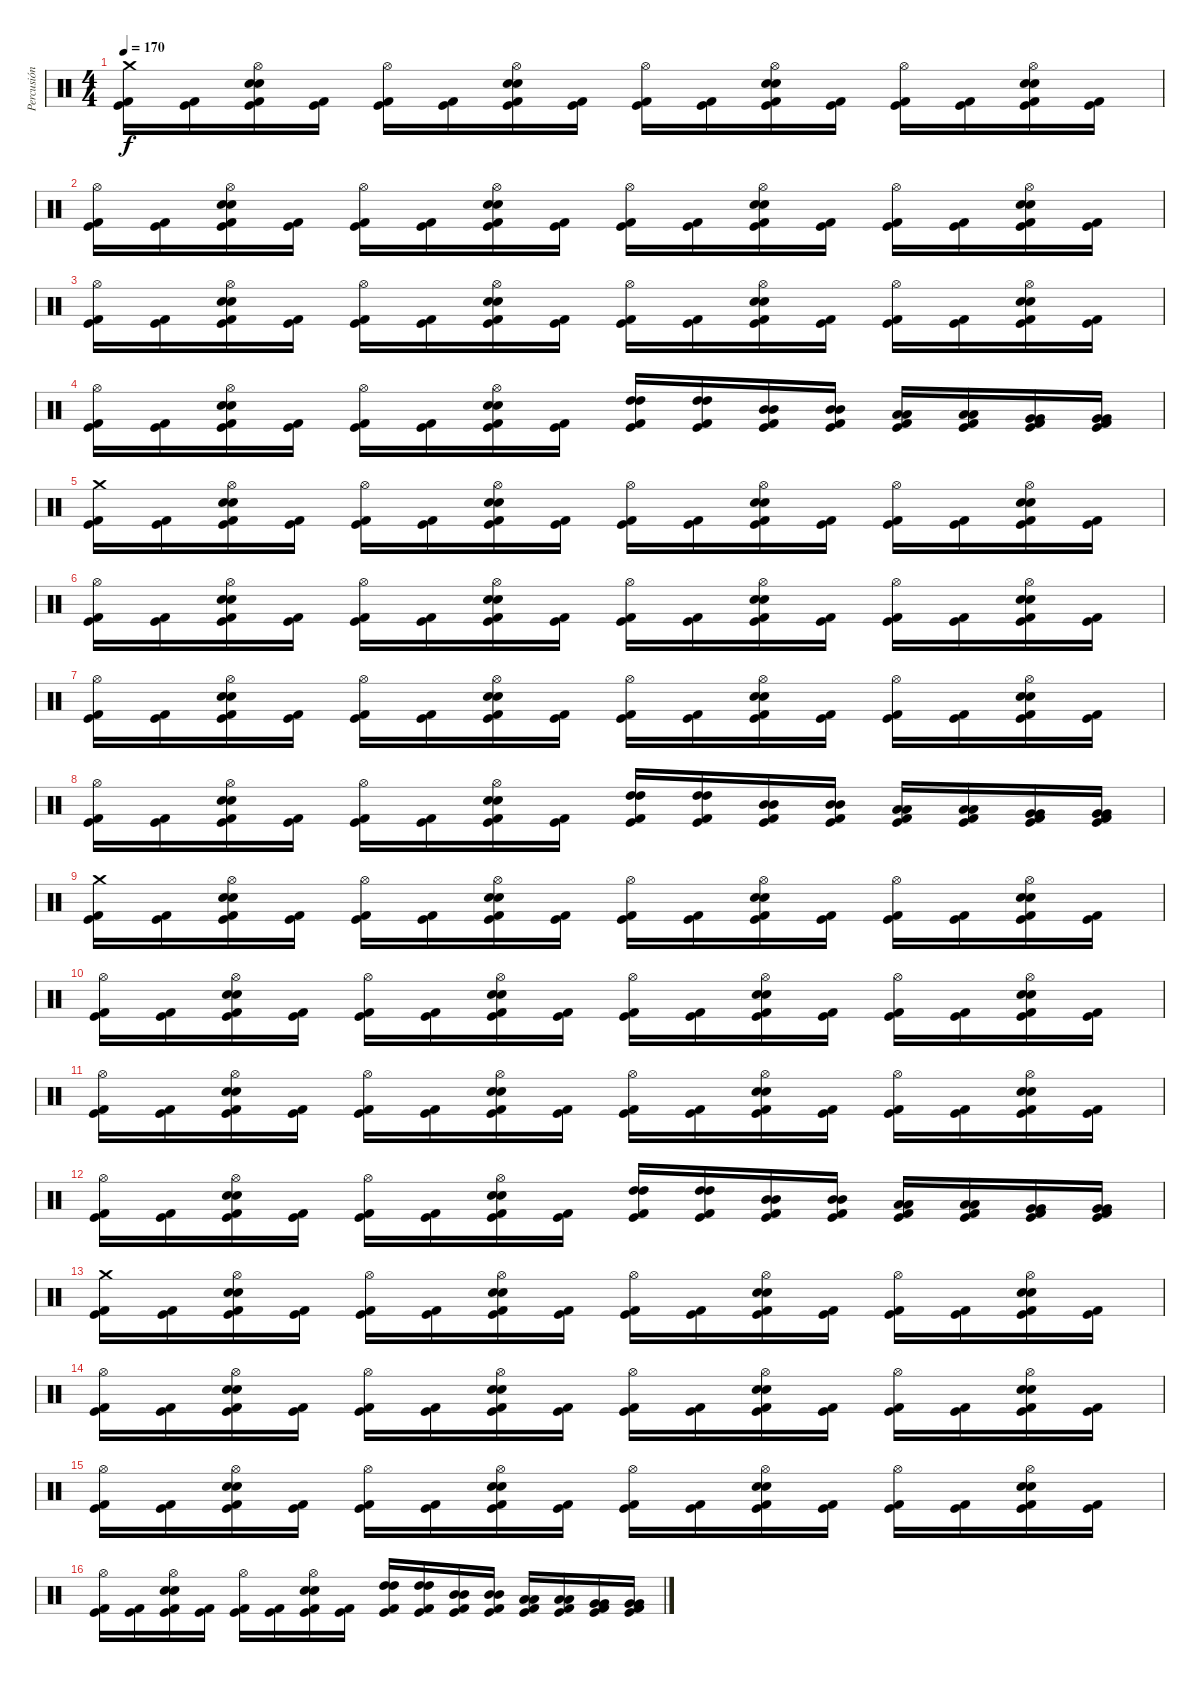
\track ("Percusión" "Percusión") {instrument percussion}
\staff {score}
\articulation defaults
\ts (4 4)
\tempo 170
\clef neutral
\ks c
("Crash medium (hit)" "Kick (hit) 2" "Kick (hit)").16{dy f} ("Kick (hit) 2" "Kick (hit)").16 ("Hi-Hat (open)" "Snare (hit) 2" "Snare (hit) 2" "Kick (hit) 2" "Kick (hit)").16 ("Kick (hit) 2" "Kick (hit)").16 ("Hi-Hat (open)" "Kick (hit) 2" "Kick (hit)").16 ("Kick (hit) 2" "Kick (hit)").16 ("Hi-Hat (open)" "Snare (hit) 2" "Snare (hit) 2" "Kick (hit) 2" "Kick (hit)").16 ("Kick (hit) 2" "Kick (hit)").16 ("Hi-Hat (open)" "Kick (hit) 2" "Kick (hit)").16 ("Kick (hit) 2" "Kick (hit)").16 ("Hi-Hat (open)" "Snare (hit) 2" "Snare (hit) 2" "Kick (hit) 2" "Kick (hit)").16 ("Kick (hit) 2" "Kick (hit)").16 ("Hi-Hat (open)" "Kick (hit) 2" "Kick (hit)").16 ("Kick (hit) 2" "Kick (hit)").16 ("Hi-Hat (open)" "Snare (hit) 2" "Snare (hit) 2" "Kick (hit) 2" "Kick (hit)").16 ("Kick (hit) 2" "Kick (hit)").16 |
("Hi-Hat (open)" "Kick (hit) 2" "Kick (hit)").16 ("Kick (hit) 2" "Kick (hit)").16 ("Hi-Hat (open)" "Snare (hit) 2" "Snare (hit) 2" "Kick (hit) 2" "Kick (hit)").16 ("Kick (hit) 2" "Kick (hit)").16 ("Hi-Hat (open)" "Kick (hit) 2" "Kick (hit)").16 ("Kick (hit) 2" "Kick (hit)").16 ("Hi-Hat (open)" "Snare (hit) 2" "Snare (hit) 2" "Kick (hit) 2" "Kick (hit)").16 ("Kick (hit) 2" "Kick (hit)").16 ("Hi-Hat (open)" "Kick (hit) 2" "Kick (hit)").16 ("Kick (hit) 2" "Kick (hit)").16 ("Hi-Hat (open)" "Snare (hit) 2" "Snare (hit) 2" "Kick (hit) 2" "Kick (hit)").16 ("Kick (hit) 2" "Kick (hit)").16 ("Hi-Hat (open)" "Kick (hit) 2" "Kick (hit)").16 ("Kick (hit) 2" "Kick (hit)").16 ("Hi-Hat (open)" "Snare (hit) 2" "Snare (hit) 2" "Kick (hit) 2" "Kick (hit)").16 ("Kick (hit) 2" "Kick (hit)").16 |
("Hi-Hat (open)" "Kick (hit) 2" "Kick (hit)").16 ("Kick (hit) 2" "Kick (hit)").16 ("Hi-Hat (open)" "Snare (hit) 2" "Snare (hit) 2" "Kick (hit) 2" "Kick (hit)").16 ("Kick (hit) 2" "Kick (hit)").16 ("Hi-Hat (open)" "Kick (hit) 2" "Kick (hit)").16 ("Kick (hit) 2" "Kick (hit)").16 ("Hi-Hat (open)" "Snare (hit) 2" "Snare (hit) 2" "Kick (hit) 2" "Kick (hit)").16 ("Kick (hit) 2" "Kick (hit)").16 ("Hi-Hat (open)" "Kick (hit) 2" "Kick (hit)").16 ("Kick (hit) 2" "Kick (hit)").16 ("Hi-Hat (open)" "Snare (hit) 2" "Snare (hit) 2" "Kick (hit) 2" "Kick (hit)").16 ("Kick (hit) 2" "Kick (hit)").16 ("Hi-Hat (open)" "Kick (hit) 2" "Kick (hit)").16 ("Kick (hit) 2" "Kick (hit)").16 ("Hi-Hat (open)" "Snare (hit) 2" "Snare (hit) 2" "Kick (hit) 2" "Kick (hit)").16 ("Kick (hit) 2" "Kick (hit)").16 |
("Hi-Hat (open)" "Kick (hit) 2" "Kick (hit)").16 ("Kick (hit) 2" "Kick (hit)").16 ("Hi-Hat (open)" "Snare (hit) 2" "Snare (hit) 2" "Kick (hit) 2" "Kick (hit)").16 ("Kick (hit) 2" "Kick (hit)").16 ("Hi-Hat (open)" "Kick (hit) 2" "Kick (hit)").16 ("Kick (hit) 2" "Kick (hit)").16 ("Hi-Hat (open)" "Snare (hit) 2" "Snare (hit) 2" "Kick (hit) 2" "Kick (hit)").16 ("Kick (hit) 2" "Kick (hit)").16 ("High Tom (hit)" "High Tom (hit)" "Kick (hit) 2" "Kick (hit)").16 ("High Tom (hit)" "High Tom (hit)" "Kick (hit) 2" "Kick (hit)").16 ("Mid Tom (hit)" "Mid Tom (hit)" "Kick (hit) 2" "Kick (hit)").16 ("Mid Tom (hit)" "Mid Tom (hit)" "Kick (hit) 2" "Kick (hit)").16 ("Low Tom (hit)" "Low Tom (hit)" "Kick (hit) 2" "Kick (hit)").16 ("Low Tom (hit)" "Low Tom (hit)" "Kick (hit) 2" "Kick (hit)").16 ("Very Low Tom (hit)" "Very Low Tom (hit)" "Kick (hit) 2" "Kick (hit)").16 ("Very Low Tom (hit)" "Very Low Tom (hit)" "Kick (hit) 2" "Kick (hit)").16 |
("Crash medium (hit)" "Kick (hit) 2" "Kick (hit)").16 ("Kick (hit) 2" "Kick (hit)").16 ("Hi-Hat (open)" "Snare (hit) 2" "Snare (hit) 2" "Kick (hit) 2" "Kick (hit)").16 ("Kick (hit) 2" "Kick (hit)").16 ("Hi-Hat (open)" "Kick (hit) 2" "Kick (hit)").16 ("Kick (hit) 2" "Kick (hit)").16 ("Hi-Hat (open)" "Snare (hit) 2" "Snare (hit) 2" "Kick (hit) 2" "Kick (hit)").16 ("Kick (hit) 2" "Kick (hit)").16 ("Hi-Hat (open)" "Kick (hit) 2" "Kick (hit)").16 ("Kick (hit) 2" "Kick (hit)").16 ("Hi-Hat (open)" "Snare (hit) 2" "Snare (hit) 2" "Kick (hit) 2" "Kick (hit)").16 ("Kick (hit) 2" "Kick (hit)").16 ("Hi-Hat (open)" "Kick (hit) 2" "Kick (hit)").16 ("Kick (hit) 2" "Kick (hit)").16 ("Hi-Hat (open)" "Snare (hit) 2" "Snare (hit) 2" "Kick (hit) 2" "Kick (hit)").16 ("Kick (hit) 2" "Kick (hit)").16 |
("Hi-Hat (open)" "Kick (hit) 2" "Kick (hit)").16 ("Kick (hit) 2" "Kick (hit)").16 ("Hi-Hat (open)" "Snare (hit) 2" "Snare (hit) 2" "Kick (hit) 2" "Kick (hit)").16 ("Kick (hit) 2" "Kick (hit)").16 ("Hi-Hat (open)" "Kick (hit) 2" "Kick (hit)").16 ("Kick (hit) 2" "Kick (hit)").16 ("Hi-Hat (open)" "Snare (hit) 2" "Snare (hit) 2" "Kick (hit) 2" "Kick (hit)").16 ("Kick (hit) 2" "Kick (hit)").16 ("Hi-Hat (open)" "Kick (hit) 2" "Kick (hit)").16 ("Kick (hit) 2" "Kick (hit)").16 ("Hi-Hat (open)" "Snare (hit) 2" "Snare (hit) 2" "Kick (hit) 2" "Kick (hit)").16 ("Kick (hit) 2" "Kick (hit)").16 ("Hi-Hat (open)" "Kick (hit) 2" "Kick (hit)").16 ("Kick (hit) 2" "Kick (hit)").16 ("Hi-Hat (open)" "Snare (hit) 2" "Snare (hit) 2" "Kick (hit) 2" "Kick (hit)").16 ("Kick (hit) 2" "Kick (hit)").16 |
("Hi-Hat (open)" "Kick (hit) 2" "Kick (hit)").16 ("Kick (hit) 2" "Kick (hit)").16 ("Hi-Hat (open)" "Snare (hit) 2" "Snare (hit) 2" "Kick (hit) 2" "Kick (hit)").16 ("Kick (hit) 2" "Kick (hit)").16 ("Hi-Hat (open)" "Kick (hit) 2" "Kick (hit)").16 ("Kick (hit) 2" "Kick (hit)").16 ("Hi-Hat (open)" "Snare (hit) 2" "Snare (hit) 2" "Kick (hit) 2" "Kick (hit)").16 ("Kick (hit) 2" "Kick (hit)").16 ("Hi-Hat (open)" "Kick (hit) 2" "Kick (hit)").16 ("Kick (hit) 2" "Kick (hit)").16 ("Hi-Hat (open)" "Snare (hit) 2" "Snare (hit) 2" "Kick (hit) 2" "Kick (hit)").16 ("Kick (hit) 2" "Kick (hit)").16 ("Hi-Hat (open)" "Kick (hit) 2" "Kick (hit)").16 ("Kick (hit) 2" "Kick (hit)").16 ("Hi-Hat (open)" "Snare (hit) 2" "Snare (hit) 2" "Kick (hit) 2" "Kick (hit)").16 ("Kick (hit) 2" "Kick (hit)").16 |
("Hi-Hat (open)" "Kick (hit) 2" "Kick (hit)").16 ("Kick (hit) 2" "Kick (hit)").16 ("Hi-Hat (open)" "Snare (hit) 2" "Snare (hit) 2" "Kick (hit) 2" "Kick (hit)").16 ("Kick (hit) 2" "Kick (hit)").16 ("Hi-Hat (open)" "Kick (hit) 2" "Kick (hit)").16 ("Kick (hit) 2" "Kick (hit)").16 ("Hi-Hat (open)" "Snare (hit) 2" "Snare (hit) 2" "Kick (hit) 2" "Kick (hit)").16 ("Kick (hit) 2" "Kick (hit)").16 ("High Tom (hit)" "High Tom (hit)" "Kick (hit) 2" "Kick (hit)").16 ("High Tom (hit)" "High Tom (hit)" "Kick (hit) 2" "Kick (hit)").16 ("Mid Tom (hit)" "Mid Tom (hit)" "Kick (hit) 2" "Kick (hit)").16 ("Mid Tom (hit)" "Mid Tom (hit)" "Kick (hit) 2" "Kick (hit)").16 ("Low Tom (hit)" "Low Tom (hit)" "Kick (hit) 2" "Kick (hit)").16 ("Low Tom (hit)" "Low Tom (hit)" "Kick (hit) 2" "Kick (hit)").16 ("Very Low Tom (hit)" "Very Low Tom (hit)" "Kick (hit) 2" "Kick (hit)").16 ("Very Low Tom (hit)" "Very Low Tom (hit)" "Kick (hit) 2" "Kick (hit)").16 |
("Crash medium (hit)" "Kick (hit) 2" "Kick (hit)").16 ("Kick (hit) 2" "Kick (hit)").16 ("Hi-Hat (open)" "Snare (hit) 2" "Snare (hit) 2" "Kick (hit) 2" "Kick (hit)").16 ("Kick (hit) 2" "Kick (hit)").16 ("Hi-Hat (open)" "Kick (hit) 2" "Kick (hit)").16 ("Kick (hit) 2" "Kick (hit)").16 ("Hi-Hat (open)" "Snare (hit) 2" "Snare (hit) 2" "Kick (hit) 2" "Kick (hit)").16 ("Kick (hit) 2" "Kick (hit)").16 ("Hi-Hat (open)" "Kick (hit) 2" "Kick (hit)").16 ("Kick (hit) 2" "Kick (hit)").16 ("Hi-Hat (open)" "Snare (hit) 2" "Snare (hit) 2" "Kick (hit) 2" "Kick (hit)").16 ("Kick (hit) 2" "Kick (hit)").16 ("Hi-Hat (open)" "Kick (hit) 2" "Kick (hit)").16 ("Kick (hit) 2" "Kick (hit)").16 ("Hi-Hat (open)" "Snare (hit) 2" "Snare (hit) 2" "Kick (hit) 2" "Kick (hit)").16 ("Kick (hit) 2" "Kick (hit)").16 |
("Hi-Hat (open)" "Kick (hit) 2" "Kick (hit)").16 ("Kick (hit) 2" "Kick (hit)").16 ("Hi-Hat (open)" "Snare (hit) 2" "Snare (hit) 2" "Kick (hit) 2" "Kick (hit)").16 ("Kick (hit) 2" "Kick (hit)").16 ("Hi-Hat (open)" "Kick (hit) 2" "Kick (hit)").16 ("Kick (hit) 2" "Kick (hit)").16 ("Hi-Hat (open)" "Snare (hit) 2" "Snare (hit) 2" "Kick (hit) 2" "Kick (hit)").16 ("Kick (hit) 2" "Kick (hit)").16 ("Hi-Hat (open)" "Kick (hit) 2" "Kick (hit)").16 ("Kick (hit) 2" "Kick (hit)").16 ("Hi-Hat (open)" "Snare (hit) 2" "Snare (hit) 2" "Kick (hit) 2" "Kick (hit)").16 ("Kick (hit) 2" "Kick (hit)").16 ("Hi-Hat (open)" "Kick (hit) 2" "Kick (hit)").16 ("Kick (hit) 2" "Kick (hit)").16 ("Hi-Hat (open)" "Snare (hit) 2" "Snare (hit) 2" "Kick (hit) 2" "Kick (hit)").16 ("Kick (hit) 2" "Kick (hit)").16 |
("Hi-Hat (open)" "Kick (hit) 2" "Kick (hit)").16 ("Kick (hit) 2" "Kick (hit)").16 ("Hi-Hat (open)" "Snare (hit) 2" "Snare (hit) 2" "Kick (hit) 2" "Kick (hit)").16 ("Kick (hit) 2" "Kick (hit)").16 ("Hi-Hat (open)" "Kick (hit) 2" "Kick (hit)").16 ("Kick (hit) 2" "Kick (hit)").16 ("Hi-Hat (open)" "Snare (hit) 2" "Snare (hit) 2" "Kick (hit) 2" "Kick (hit)").16 ("Kick (hit) 2" "Kick (hit)").16 ("Hi-Hat (open)" "Kick (hit) 2" "Kick (hit)").16 ("Kick (hit) 2" "Kick (hit)").16 ("Hi-Hat (open)" "Snare (hit) 2" "Snare (hit) 2" "Kick (hit) 2" "Kick (hit)").16 ("Kick (hit) 2" "Kick (hit)").16 ("Hi-Hat (open)" "Kick (hit) 2" "Kick (hit)").16 ("Kick (hit) 2" "Kick (hit)").16 ("Hi-Hat (open)" "Snare (hit) 2" "Snare (hit) 2" "Kick (hit) 2" "Kick (hit)").16 ("Kick (hit) 2" "Kick (hit)").16 |
("Hi-Hat (open)" "Kick (hit) 2" "Kick (hit)").16 ("Kick (hit) 2" "Kick (hit)").16 ("Hi-Hat (open)" "Snare (hit) 2" "Snare (hit) 2" "Kick (hit) 2" "Kick (hit)").16 ("Kick (hit) 2" "Kick (hit)").16 ("Hi-Hat (open)" "Kick (hit) 2" "Kick (hit)").16 ("Kick (hit) 2" "Kick (hit)").16 ("Hi-Hat (open)" "Snare (hit) 2" "Snare (hit) 2" "Kick (hit) 2" "Kick (hit)").16 ("Kick (hit) 2" "Kick (hit)").16 ("High Tom (hit)" "High Tom (hit)" "Kick (hit) 2" "Kick (hit)").16 ("High Tom (hit)" "High Tom (hit)" "Kick (hit) 2" "Kick (hit)").16 ("Mid Tom (hit)" "Mid Tom (hit)" "Kick (hit) 2" "Kick (hit)").16 ("Mid Tom (hit)" "Mid Tom (hit)" "Kick (hit) 2" "Kick (hit)").16 ("Low Tom (hit)" "Low Tom (hit)" "Kick (hit) 2" "Kick (hit)").16 ("Low Tom (hit)" "Low Tom (hit)" "Kick (hit) 2" "Kick (hit)").16 ("Very Low Tom (hit)" "Very Low Tom (hit)" "Kick (hit) 2" "Kick (hit)").16 ("Very Low Tom (hit)" "Very Low Tom (hit)" "Kick (hit) 2" "Kick (hit)").16 |
("Crash medium (hit)" "Kick (hit) 2" "Kick (hit)").16 ("Kick (hit) 2" "Kick (hit)").16 ("Hi-Hat (open)" "Snare (hit) 2" "Snare (hit) 2" "Kick (hit) 2" "Kick (hit)").16 ("Kick (hit) 2" "Kick (hit)").16 ("Hi-Hat (open)" "Kick (hit) 2" "Kick (hit)").16 ("Kick (hit) 2" "Kick (hit)").16 ("Hi-Hat (open)" "Snare (hit) 2" "Snare (hit) 2" "Kick (hit) 2" "Kick (hit)").16 ("Kick (hit) 2" "Kick (hit)").16 ("Hi-Hat (open)" "Kick (hit) 2" "Kick (hit)").16 ("Kick (hit) 2" "Kick (hit)").16 ("Hi-Hat (open)" "Snare (hit) 2" "Snare (hit) 2" "Kick (hit) 2" "Kick (hit)").16 ("Kick (hit) 2" "Kick (hit)").16 ("Hi-Hat (open)" "Kick (hit) 2" "Kick (hit)").16 ("Kick (hit) 2" "Kick (hit)").16 ("Hi-Hat (open)" "Snare (hit) 2" "Snare (hit) 2" "Kick (hit) 2" "Kick (hit)").16 ("Kick (hit) 2" "Kick (hit)").16 |
("Hi-Hat (open)" "Kick (hit) 2" "Kick (hit)").16 ("Kick (hit) 2" "Kick (hit)").16 ("Hi-Hat (open)" "Snare (hit) 2" "Snare (hit) 2" "Kick (hit) 2" "Kick (hit)").16 ("Kick (hit) 2" "Kick (hit)").16 ("Hi-Hat (open)" "Kick (hit) 2" "Kick (hit)").16 ("Kick (hit) 2" "Kick (hit)").16 ("Hi-Hat (open)" "Snare (hit) 2" "Snare (hit) 2" "Kick (hit) 2" "Kick (hit)").16 ("Kick (hit) 2" "Kick (hit)").16 ("Hi-Hat (open)" "Kick (hit) 2" "Kick (hit)").16 ("Kick (hit) 2" "Kick (hit)").16 ("Hi-Hat (open)" "Snare (hit) 2" "Snare (hit) 2" "Kick (hit) 2" "Kick (hit)").16 ("Kick (hit) 2" "Kick (hit)").16 ("Hi-Hat (open)" "Kick (hit) 2" "Kick (hit)").16 ("Kick (hit) 2" "Kick (hit)").16 ("Hi-Hat (open)" "Snare (hit) 2" "Snare (hit) 2" "Kick (hit) 2" "Kick (hit)").16 ("Kick (hit) 2" "Kick (hit)").16 |
("Hi-Hat (open)" "Kick (hit) 2" "Kick (hit)").16 ("Kick (hit) 2" "Kick (hit)").16 ("Hi-Hat (open)" "Snare (hit) 2" "Snare (hit) 2" "Kick (hit) 2" "Kick (hit)").16 ("Kick (hit) 2" "Kick (hit)").16 ("Hi-Hat (open)" "Kick (hit) 2" "Kick (hit)").16 ("Kick (hit) 2" "Kick (hit)").16 ("Hi-Hat (open)" "Snare (hit) 2" "Snare (hit) 2" "Kick (hit) 2" "Kick (hit)").16 ("Kick (hit) 2" "Kick (hit)").16 ("Hi-Hat (open)" "Kick (hit) 2" "Kick (hit)").16 ("Kick (hit) 2" "Kick (hit)").16 ("Hi-Hat (open)" "Snare (hit) 2" "Snare (hit) 2" "Kick (hit) 2" "Kick (hit)").16 ("Kick (hit) 2" "Kick (hit)").16 ("Hi-Hat (open)" "Kick (hit) 2" "Kick (hit)").16 ("Kick (hit) 2" "Kick (hit)").16 ("Hi-Hat (open)" "Snare (hit) 2" "Snare (hit) 2" "Kick (hit) 2" "Kick (hit)").16 ("Kick (hit) 2" "Kick (hit)").16 |
("Hi-Hat (open)" "Kick (hit) 2" "Kick (hit)").16 ("Kick (hit) 2" "Kick (hit)").16 ("Hi-Hat (open)" "Snare (hit) 2" "Snare (hit) 2" "Kick (hit) 2" "Kick (hit)").16 ("Kick (hit) 2" "Kick (hit)").16 ("Hi-Hat (open)" "Kick (hit) 2" "Kick (hit)").16 ("Kick (hit) 2" "Kick (hit)").16 ("Hi-Hat (open)" "Snare (hit) 2" "Snare (hit) 2" "Kick (hit) 2" "Kick (hit)").16 ("Kick (hit) 2" "Kick (hit)").16 ("High Tom (hit)" "High Tom (hit)" "Kick (hit) 2" "Kick (hit)").16 ("High Tom (hit)" "High Tom (hit)" "Kick (hit) 2" "Kick (hit)").16 ("Mid Tom (hit)" "Mid Tom (hit)" "Kick (hit) 2" "Kick (hit)").16 ("Mid Tom (hit)" "Mid Tom (hit)" "Kick (hit) 2" "Kick (hit)").16 ("Low Tom (hit)" "Low Tom (hit)" "Kick (hit) 2" "Kick (hit)").16 ("Low Tom (hit)" "Low Tom (hit)" "Kick (hit) 2" "Kick (hit)").16 ("Very Low Tom (hit)" "Very Low Tom (hit)" "Kick (hit) 2" "Kick (hit)").16 ("Very Low Tom (hit)" "Very Low Tom (hit)" "Kick (hit) 2" "Kick (hit)").16
